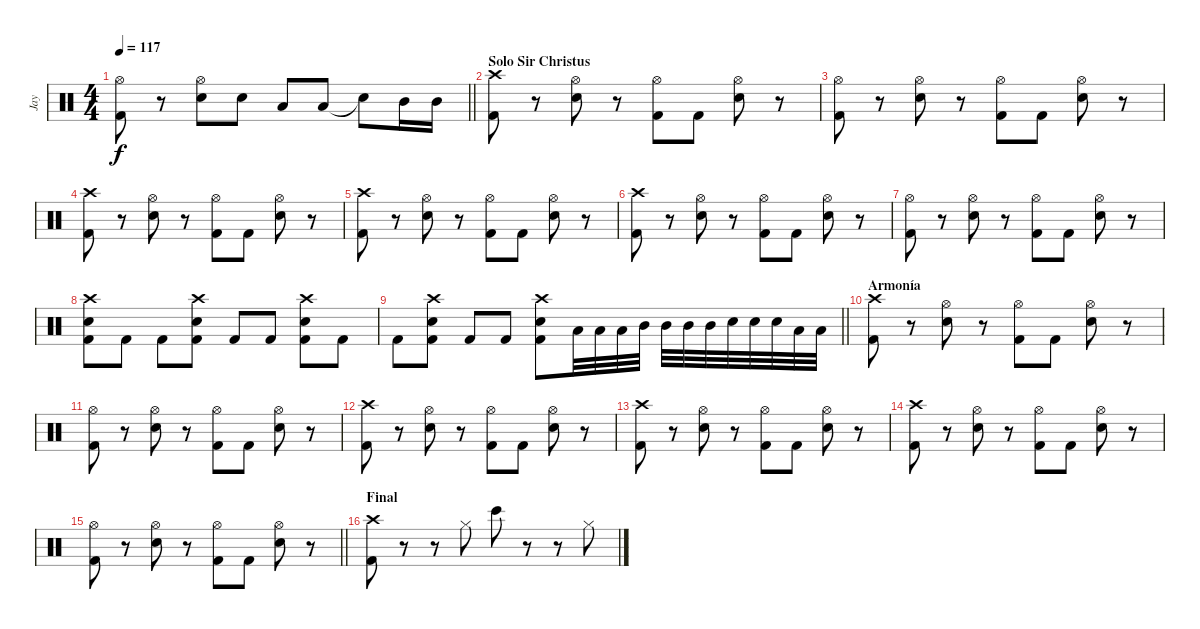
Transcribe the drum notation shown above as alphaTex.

\track ("Jay" "Jay") {instrument percussion}
\staff {score}
\articulation defaults
\ts (4 4)
\tempo 117
\clef neutral
\barLineRight lightlight
\ks c
("Hi-Hat (open)" "Kick (hit) 2").8{dy f} r.8 ("Hi-Hat (open)" "Snare (hit) 2").8 "Snare (hit) 2".8 "Low Tom (hit)".8 "Low Tom (hit)".8 "Snare (hit)"{t}.8 "Mid Tom (hit)".16 "Mid Tom (hit)".16 |
\section ("" "Solo Sir Christus")
("Crash high (hit)" "Kick (hit) 2").8 r.8 ("Hi-Hat (open)" "Snare (hit) 2").8 r.8 ("Hi-Hat (open)" "Kick (hit) 2").8 "Kick (hit) 2".8 ("Hi-Hat (open)" "Snare (hit) 2").8 r.8 |
("Hi-Hat (open)" "Kick (hit) 2").8 r.8 ("Hi-Hat (open)" "Snare (hit) 2").8 r.8 ("Hi-Hat (open)" "Kick (hit) 2").8 "Kick (hit) 2".8 ("Hi-Hat (open)" "Snare (hit) 2").8 r.8 |
("Crash high (hit)" "Kick (hit) 2").8 r.8 ("Hi-Hat (open)" "Snare (hit) 2").8 r.8 ("Hi-Hat (open)" "Kick (hit) 2").8 "Kick (hit) 2".8 ("Hi-Hat (open)" "Snare (hit) 2").8 r.8 |
("Crash high (hit)" "Kick (hit) 2").8 r.8 ("Hi-Hat (open)" "Snare (hit) 2").8 r.8 ("Hi-Hat (open)" "Kick (hit) 2").8 "Kick (hit) 2".8 ("Hi-Hat (open)" "Snare (hit) 2").8 r.8 |
("Crash high (hit)" "Kick (hit) 2").8 r.8 ("Hi-Hat (open)" "Snare (hit) 2").8 r.8 ("Hi-Hat (open)" "Kick (hit) 2").8 "Kick (hit) 2".8 ("Hi-Hat (open)" "Snare (hit) 2").8 r.8 |
("Hi-Hat (open)" "Kick (hit) 2").8 r.8 ("Hi-Hat (open)" "Snare (hit) 2").8 r.8 ("Hi-Hat (open)" "Kick (hit) 2").8 "Kick (hit) 2".8 ("Hi-Hat (open)" "Snare (hit) 2").8 r.8 |
("Crash high (hit)" "Snare (hit) 2" "Kick (hit) 2").8 "Kick (hit) 2".8 "Kick (hit) 2".8 ("Crash high (hit)" "Snare (hit) 2" "Kick (hit) 2").8 "Kick (hit) 2".8 "Kick (hit) 2".8 ("Crash high (hit)" "Snare (hit) 2" "Kick (hit) 2").8 "Kick (hit) 2".8 |
\barLineRight lightlight "Kick (hit) 2".8
("Crash high (hit)" "Snare (hit) 2" "Kick (hit) 2").8 "Kick (hit) 2".8 "Kick (hit) 2".8 ("Crash high (hit)" "Snare (hit) 2" "Kick (hit) 2").8 "Low Tom (hit)".32 "Low Tom (hit)".32 "Low Tom (hit)".32 "Mid Tom (hit)".32 "Mid Tom (hit)".32 "Mid Tom (hit)".32 "Mid Tom (hit)".32 "Electric Snare (hit)".32 "Electric Snare (hit)".32 "Electric Snare (hit)".32 "Low Tom (hit)".32 "Low Tom (hit)".32 |
\section ("" "Armonía")
("Crash high (hit)" "Kick (hit) 2").8 r.8 ("Hi-Hat (open)" "Snare (hit) 2").8 r.8 ("Hi-Hat (open)" "Kick (hit) 2").8 "Kick (hit) 2".8 ("Hi-Hat (open)" "Snare (hit) 2").8 r.8 |
("Hi-Hat (open)" "Kick (hit) 2").8 r.8 ("Hi-Hat (open)" "Snare (hit) 2").8 r.8 ("Hi-Hat (open)" "Kick (hit) 2").8 "Kick (hit) 2".8 ("Hi-Hat (open)" "Snare (hit) 2").8 r.8 |
("Crash high (hit)" "Kick (hit) 2").8 r.8 ("Hi-Hat (open)" "Snare (hit) 2").8 r.8 ("Hi-Hat (open)" "Kick (hit) 2").8 "Kick (hit) 2".8 ("Hi-Hat (open)" "Snare (hit) 2").8 r.8 |
("Crash high (hit)" "Kick (hit) 2").8 r.8 ("Hi-Hat (open)" "Snare (hit) 2").8 r.8 ("Hi-Hat (open)" "Kick (hit) 2").8 "Kick (hit) 2".8 ("Hi-Hat (open)" "Snare (hit) 2").8 r.8 |
("Crash high (hit)" "Kick (hit) 2").8 r.8 ("Hi-Hat (open)" "Snare (hit) 2").8 r.8 ("Hi-Hat (open)" "Kick (hit) 2").8 "Kick (hit) 2".8 ("Hi-Hat (open)" "Snare (hit) 2").8 r.8 |
\barLineRight lightlight
("Hi-Hat (open)" "Kick (hit) 2").8 r.8 ("Hi-Hat (open)" "Snare (hit) 2").8 r.8 ("Hi-Hat (open)" "Kick (hit) 2").8 "Kick (hit) 2".8 ("Hi-Hat (open)" "Snare (hit) 2").8 r.8 |
\section ("" "Final")
("Crash high (hit)" "Kick (hit) 2").8 r.8 r.8 "Hi-Hat (closed)".8 "Bongo High (hit)".8 r.8 r.8 "Hi-Hat (closed)".8
